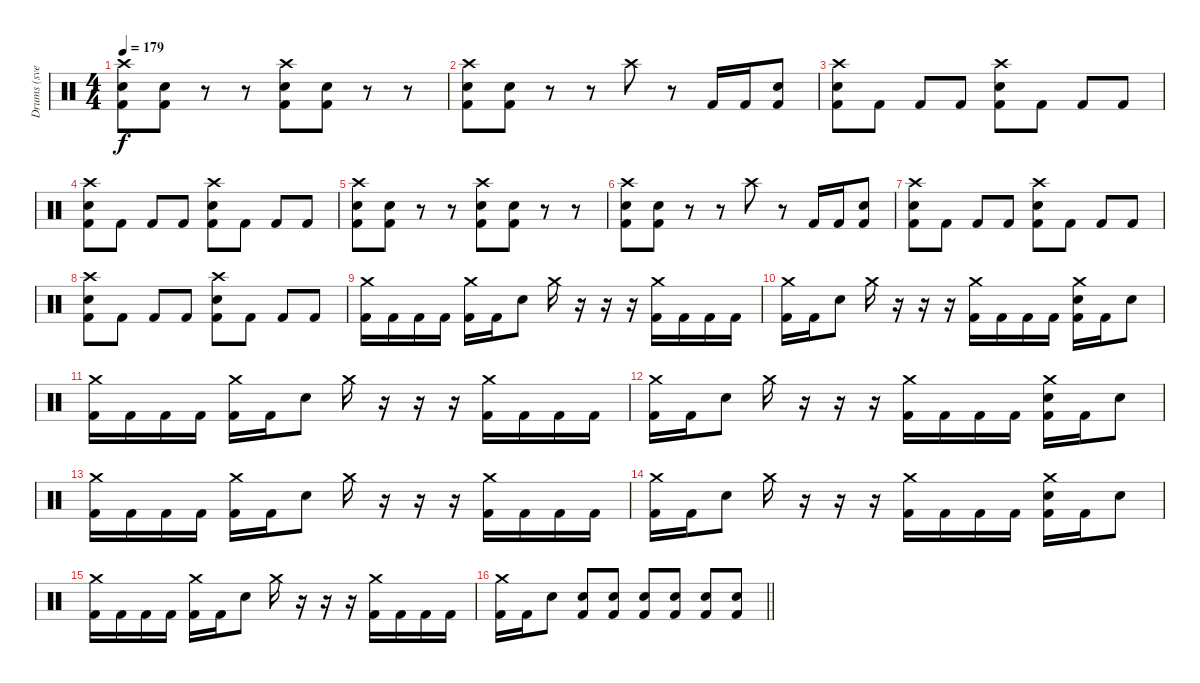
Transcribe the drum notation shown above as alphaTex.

\track ("Drums (svelle)" "Drums (sve") {instrument percussion}
\staff {score}
\articulation defaults
\ts (4 4)
\tempo 179
\clef neutral
\ks c
("Crash high (hit)" "Electric Snare (hit)" "Kick (hit) 2").8{dy f} ("Electric Snare (hit)" "Kick (hit) 2").8 r.8 r.8 ("Crash high (hit)" "Electric Snare (hit)" "Kick (hit) 2").8 ("Electric Snare (hit)" "Kick (hit) 2").8 r.8 r.8 |
("Crash high (hit)" "Electric Snare (hit)" "Kick (hit) 2").8 ("Electric Snare (hit)" "Kick (hit) 2").8 r.8 r.8 "Crash high (hit)".8 r.8 "Kick (hit) 2".16 "Kick (hit) 2".16 ("Electric Snare (hit)" "Kick (hit) 2").8 |
("Crash high (hit)" "Electric Snare (hit)" "Kick (hit) 2").8 "Kick (hit) 2".8 "Kick (hit) 2".8 "Kick (hit) 2".8 ("Crash high (hit)" "Electric Snare (hit)" "Kick (hit) 2").8 "Kick (hit) 2".8 "Kick (hit) 2".8 "Kick (hit) 2".8 |
("Crash high (hit)" "Electric Snare (hit)" "Kick (hit) 2").8 "Kick (hit) 2".8 "Kick (hit) 2".8 "Kick (hit) 2".8 ("Crash high (hit)" "Electric Snare (hit)" "Kick (hit) 2").8 "Kick (hit) 2".8 "Kick (hit) 2".8 "Kick (hit) 2".8 |
("Crash high (hit)" "Electric Snare (hit)" "Kick (hit) 2").8 ("Electric Snare (hit)" "Kick (hit) 2").8 r.8 r.8 ("Crash high (hit)" "Electric Snare (hit)" "Kick (hit) 2").8 ("Electric Snare (hit)" "Kick (hit) 2").8 r.8 r.8 |
("Crash high (hit)" "Electric Snare (hit)" "Kick (hit) 2").8 ("Electric Snare (hit)" "Kick (hit) 2").8 r.8 r.8 "Crash high (hit)".8 r.8 "Kick (hit) 2".16 "Kick (hit) 2".16 ("Electric Snare (hit)" "Kick (hit) 2").8 |
("Crash high (hit)" "Electric Snare (hit)" "Kick (hit) 2").8 "Kick (hit) 2".8 "Kick (hit) 2".8 "Kick (hit) 2".8 ("Crash high (hit)" "Electric Snare (hit)" "Kick (hit) 2").8 "Kick (hit) 2".8 "Kick (hit) 2".8 "Kick (hit) 2".8 |
("Crash high (hit)" "Electric Snare (hit)" "Kick (hit) 2").8 "Kick (hit) 2".8 "Kick (hit) 2".8 "Kick (hit) 2".8 ("Crash high (hit)" "Electric Snare (hit)" "Kick (hit) 2").8 "Kick (hit) 2".8 "Kick (hit) 2".8 "Kick (hit) 2".8 |
("Crash medium (hit)" "Kick (hit) 2").16 "Kick (hit) 2".16 "Kick (hit) 2".16 "Kick (hit) 2".16 ("Crash medium (hit)" "Kick (hit) 2").16 "Kick (hit) 2".16 "Electric Snare (hit)".8 "Crash medium (hit)".16 r.16 r.16 r.16 ("Crash medium (hit)" "Kick (hit) 2").16 "Kick (hit) 2".16 "Kick (hit) 2".16 "Kick (hit) 2".16 |
("Crash medium (hit)" "Kick (hit) 2").16 "Kick (hit) 2".16 "Electric Snare (hit)".8 "Crash medium (hit)".16 r.16 r.16 r.16 ("Crash medium (hit)" "Kick (hit) 2").16 "Kick (hit) 2".16 "Kick (hit) 2".16 "Kick (hit) 2".16 ("Crash medium (hit)" "Electric Snare (hit)" "Kick (hit) 2").16 "Kick (hit) 2".16 "Electric Snare (hit)".8 |
("Crash medium (hit)" "Kick (hit) 2").16 "Kick (hit) 2".16 "Kick (hit) 2".16 "Kick (hit) 2".16 ("Crash medium (hit)" "Kick (hit) 2").16 "Kick (hit) 2".16 "Electric Snare (hit)".8 "Crash medium (hit)".16 r.16 r.16 r.16 ("Crash medium (hit)" "Kick (hit) 2").16 "Kick (hit) 2".16 "Kick (hit) 2".16 "Kick (hit) 2".16 |
("Crash medium (hit)" "Kick (hit) 2").16 "Kick (hit) 2".16 "Electric Snare (hit)".8 "Crash medium (hit)".16 r.16 r.16 r.16 ("Crash medium (hit)" "Kick (hit) 2").16 "Kick (hit) 2".16 "Kick (hit) 2".16 "Kick (hit) 2".16 ("Crash medium (hit)" "Electric Snare (hit)" "Kick (hit) 2").16 "Kick (hit) 2".16 "Electric Snare (hit)".8 |
("Crash medium (hit)" "Kick (hit) 2").16 "Kick (hit) 2".16 "Kick (hit) 2".16 "Kick (hit) 2".16 ("Crash medium (hit)" "Kick (hit) 2").16 "Kick (hit) 2".16 "Electric Snare (hit)".8 "Crash medium (hit)".16 r.16 r.16 r.16 ("Crash medium (hit)" "Kick (hit) 2").16 "Kick (hit) 2".16 "Kick (hit) 2".16 "Kick (hit) 2".16 |
("Crash medium (hit)" "Kick (hit) 2").16 "Kick (hit) 2".16 "Electric Snare (hit)".8 "Crash medium (hit)".16 r.16 r.16 r.16 ("Crash medium (hit)" "Kick (hit) 2").16 "Kick (hit) 2".16 "Kick (hit) 2".16 "Kick (hit) 2".16 ("Crash medium (hit)" "Electric Snare (hit)" "Kick (hit) 2").16 "Kick (hit) 2".16 "Electric Snare (hit)".8 |
("Crash medium (hit)" "Kick (hit) 2").16 "Kick (hit) 2".16 "Kick (hit) 2".16 "Kick (hit) 2".16 ("Crash medium (hit)" "Kick (hit) 2").16 "Kick (hit) 2".16 "Electric Snare (hit)".8 "Crash medium (hit)".16 r.16 r.16 r.16 ("Crash medium (hit)" "Kick (hit) 2").16 "Kick (hit) 2".16 "Kick (hit) 2".16 "Kick (hit) 2".16 |
\barLineRight lightlight
("Crash medium (hit)" "Kick (hit) 2").16 "Kick (hit) 2".16 "Electric Snare (hit)".8 ("Electric Snare (hit)" "Kick (hit) 2").8 ("Electric Snare (hit)" "Kick (hit) 2").8 ("Electric Snare (hit)" "Kick (hit) 2").8 ("Electric Snare (hit)" "Kick (hit) 2").8 ("Electric Snare (hit)" "Kick (hit) 2").8 ("Electric Snare (hit)" "Kick (hit) 2").8
